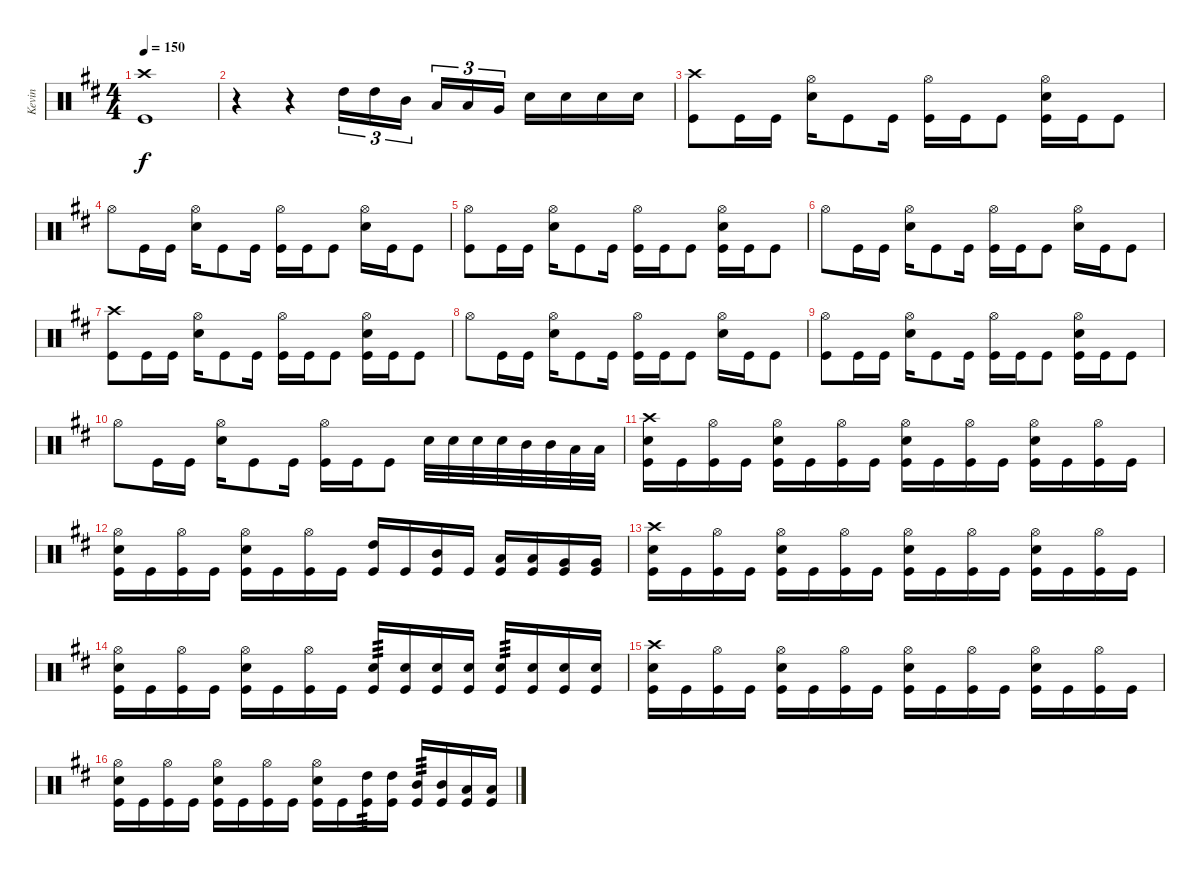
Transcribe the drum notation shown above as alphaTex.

\track ("Kevin" "Kevin") {instrument percussion}
\staff {score}
\articulation defaults
\ts (4 4)
\tempo 150
\clef neutral
\ks d
("Crash high (hit)" "Kick (hit)").1{dy f} |
r.4 r.4 "High Tom (hit)".16{tu (3 2)} "High Tom (hit)".16{tu (3 2)} "Mid Tom (hit)".16{tu (3 2) beam splitsecondary} "Low Tom (hit)".16{tu (3 2)} "Low Tom (hit)".16{tu (3 2)} "Very Low Tom (hit)".16{tu (3 2)} "Snare (hit) 2".16 "Snare (hit) 2".16 "Snare (hit) 2".16 "Snare (hit) 2".16 |
("Crash high (hit)" "Kick (hit)").8 "Kick (hit)".16 "Kick (hit)".16 ("Hi-Hat (open)" "Snare (hit) 2").16 "Kick (hit)".8 "Kick (hit)".16 ("Hi-Hat (open)" "Kick (hit)").16 "Kick (hit)".16 "Kick (hit)".8 ("Hi-Hat (open)" "Snare (hit) 2" "Kick (hit)").16 "Kick (hit)".16 "Kick (hit)".8 |
"Hi-Hat (open)".8 "Kick (hit)".16 "Kick (hit)".16 ("Hi-Hat (open)" "Snare (hit) 2").16 "Kick (hit)".8 "Kick (hit)".16 ("Hi-Hat (open)" "Kick (hit)").16 "Kick (hit)".16 "Kick (hit)".8 ("Hi-Hat (open)" "Snare (hit) 2").16 "Kick (hit)".16 "Kick (hit)".8 |
("Hi-Hat (open)" "Kick (hit)").8 "Kick (hit)".16 "Kick (hit)".16 ("Hi-Hat (open)" "Snare (hit) 2").16 "Kick (hit)".8 "Kick (hit)".16 ("Hi-Hat (open)" "Kick (hit)").16 "Kick (hit)".16 "Kick (hit)".8 ("Hi-Hat (open)" "Snare (hit) 2" "Kick (hit)").16 "Kick (hit)".16 "Kick (hit)".8 |
"Hi-Hat (open)".8 "Kick (hit)".16 "Kick (hit)".16 ("Hi-Hat (open)" "Snare (hit) 2").16 "Kick (hit)".8 "Kick (hit)".16 ("Hi-Hat (open)" "Kick (hit)").16 "Kick (hit)".16 "Kick (hit)".8 ("Hi-Hat (open)" "Snare (hit) 2").16 "Kick (hit)".16 "Kick (hit)".8 |
("Crash high (hit)" "Kick (hit)").8 "Kick (hit)".16 "Kick (hit)".16 ("Hi-Hat (open)" "Snare (hit) 2").16 "Kick (hit)".8 "Kick (hit)".16 ("Hi-Hat (open)" "Kick (hit)").16 "Kick (hit)".16 "Kick (hit)".8 ("Hi-Hat (open)" "Snare (hit) 2" "Kick (hit)").16 "Kick (hit)".16 "Kick (hit)".8 |
"Hi-Hat (open)".8 "Kick (hit)".16 "Kick (hit)".16 ("Hi-Hat (open)" "Snare (hit) 2").16 "Kick (hit)".8 "Kick (hit)".16 ("Hi-Hat (open)" "Kick (hit)").16 "Kick (hit)".16 "Kick (hit)".8 ("Hi-Hat (open)" "Snare (hit) 2").16 "Kick (hit)".16 "Kick (hit)".8 |
("Hi-Hat (open)" "Kick (hit)").8 "Kick (hit)".16 "Kick (hit)".16 ("Hi-Hat (open)" "Snare (hit) 2").16 "Kick (hit)".8 "Kick (hit)".16 ("Hi-Hat (open)" "Kick (hit)").16 "Kick (hit)".16 "Kick (hit)".8 ("Hi-Hat (open)" "Snare (hit) 2" "Kick (hit)").16 "Kick (hit)".16 "Kick (hit)".8 |
"Hi-Hat (open)".8 "Kick (hit)".16 "Kick (hit)".16 ("Hi-Hat (open)" "Snare (hit) 2").16 "Kick (hit)".8 "Kick (hit)".16 ("Hi-Hat (open)" "Kick (hit)").16 "Kick (hit)".16 "Kick (hit)".8 "Snare (hit) 2".32 "Snare (hit) 2".32 "Snare (hit) 2".32 "Snare (hit) 2".32 "Mid Tom (hit)".32 "Mid Tom (hit)".32 "Low Tom (hit)".32 "Low Tom (hit)".32 |
("Crash high (hit)" "Snare (hit) 2" "Kick (hit)").16 "Kick (hit)".16 ("Hi-Hat (open)" "Kick (hit)").16 "Kick (hit)".16 ("Hi-Hat (open)" "Snare (hit) 2" "Kick (hit)").16 "Kick (hit)".16 ("Hi-Hat (open)" "Kick (hit)").16 "Kick (hit)".16 ("Hi-Hat (open)" "Snare (hit) 2" "Kick (hit)").16 "Kick (hit)".16 ("Hi-Hat (open)" "Kick (hit)").16 "Kick (hit)".16 ("Hi-Hat (open)" "Snare (hit) 2" "Kick (hit)").16 "Kick (hit)".16 ("Hi-Hat (open)" "Kick (hit)").16 "Kick (hit)".16 |
("Hi-Hat (open)" "Snare (hit) 2" "Kick (hit)").16 "Kick (hit)".16 ("Hi-Hat (open)" "Kick (hit)").16 "Kick (hit)".16 ("Hi-Hat (open)" "Snare (hit) 2" "Kick (hit)").16 "Kick (hit)".16 ("Hi-Hat (open)" "Kick (hit)").16 "Kick (hit)".16 ("High Tom (hit)" "Kick (hit)").16 "Kick (hit)".16 ("Mid Tom (hit)" "Kick (hit)").16 "Kick (hit)".16 ("Low Tom (hit)" "Kick (hit)").16 ("Low Tom (hit)" "Kick (hit)").16 ("Very Low Tom (hit)" "Kick (hit)").16 ("Very Low Tom (hit)" "Kick (hit)").16 |
("Crash high (hit)" "Snare (hit) 2" "Kick (hit)").16 "Kick (hit)".16 ("Hi-Hat (open)" "Kick (hit)").16 "Kick (hit)".16 ("Hi-Hat (open)" "Snare (hit) 2" "Kick (hit)").16 "Kick (hit)".16 ("Hi-Hat (open)" "Kick (hit)").16 "Kick (hit)".16 ("Hi-Hat (open)" "Snare (hit) 2" "Kick (hit)").16 "Kick (hit)".16 ("Hi-Hat (open)" "Kick (hit)").16 "Kick (hit)".16 ("Hi-Hat (open)" "Snare (hit) 2" "Kick (hit)").16 "Kick (hit)".16 ("Hi-Hat (open)" "Kick (hit)").16 "Kick (hit)".16 |
("Hi-Hat (open)" "Snare (hit) 2" "Kick (hit)").16 "Kick (hit)".16 ("Hi-Hat (open)" "Kick (hit)").16 "Kick (hit)".16 ("Hi-Hat (open)" "Snare (hit) 2" "Kick (hit)").16 "Kick (hit)".16 ("Hi-Hat (open)" "Kick (hit)").16 "Kick (hit)".16 ("Snare (hit) 2" "Kick (hit)").16{tp 3} ("Snare (hit) 2" "Kick (hit)").16 ("Snare (hit) 2" "Kick (hit)").16 ("Snare (hit) 2" "Kick (hit)").16 ("Snare (hit) 2" "Kick (hit)").16{tp 3} ("Snare (hit) 2" "Kick (hit)").16 ("Snare (hit) 2" "Kick (hit)").16 ("Snare (hit) 2" "Kick (hit)").16 |
("Crash high (hit)" "Snare (hit) 2" "Kick (hit)").16 "Kick (hit)".16 ("Hi-Hat (open)" "Kick (hit)").16 "Kick (hit)".16 ("Hi-Hat (open)" "Snare (hit) 2" "Kick (hit)").16 "Kick (hit)".16 ("Hi-Hat (open)" "Kick (hit)").16 "Kick (hit)".16 ("Hi-Hat (open)" "Snare (hit) 2" "Kick (hit)").16 "Kick (hit)".16 ("Hi-Hat (open)" "Kick (hit)").16 "Kick (hit)".16 ("Hi-Hat (open)" "Snare (hit) 2" "Kick (hit)").16 "Kick (hit)".16 ("Hi-Hat (open)" "Kick (hit)").16 "Kick (hit)".16 |
("Hi-Hat (open)" "Snare (hit) 2" "Kick (hit)").16 "Kick (hit)".16 ("Hi-Hat (open)" "Kick (hit)").16 "Kick (hit)".16 ("Hi-Hat (open)" "Snare (hit) 2" "Kick (hit)").16 "Kick (hit)".16 ("Hi-Hat (open)" "Kick (hit)").16 "Kick (hit)".16 ("Hi-Hat (open)" "Snare (hit) 2" "Kick (hit)").16 "Kick (hit)".16 ("High Tom (hit)" "Kick (hit)").16{tp 3} ("High Tom (hit)" "Kick (hit)").16 ("Mid Tom (hit)" "Kick (hit)").16{tp 3} ("Mid Tom (hit)" "Kick (hit)").16 ("Low Tom (hit)" "Kick (hit)").16 ("Low Tom (hit)" "Kick (hit)").16
